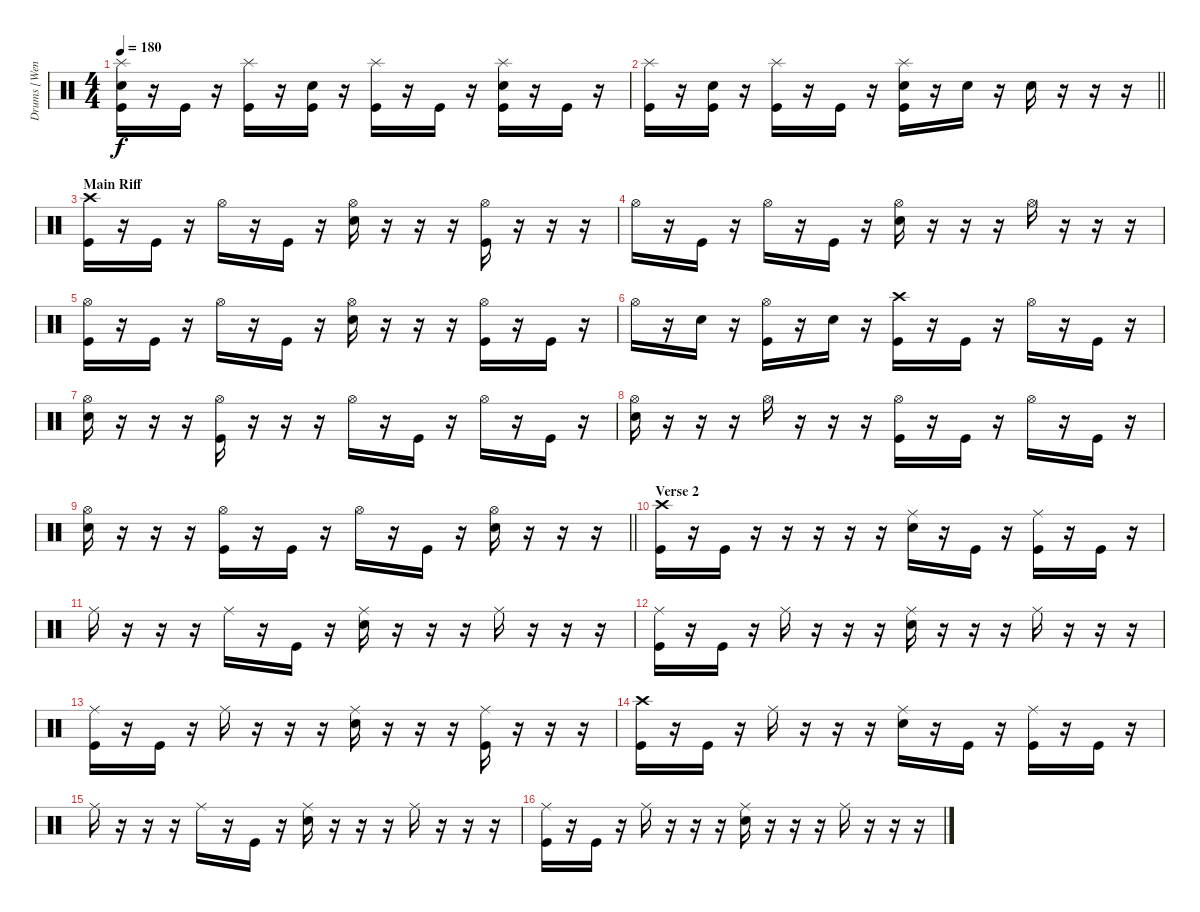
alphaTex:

\track ("Drums [Wengren]" "Drums [Wen") {instrument percussion}
\staff {score}
\articulation defaults
\ts (4 4)
\tempo 180
\clef neutral
\ks c
("Splash (hit)" "Electric Snare (hit)" "Kick (hit)").16{dy f} r.16 "Kick (hit)".16 r.16 ("Splash (hit)" "Kick (hit)").16 r.16 ("Electric Snare (hit)" "Kick (hit)").16 r.16 ("Splash (hit)" "Kick (hit)").16 r.16 "Kick (hit)".16 r.16 ("Splash (hit)" "Electric Snare (hit)" "Kick (hit)").16 r.16 "Kick (hit)".16 r.16 |
\barLineRight lightlight
("Splash (hit)" "Kick (hit)").16 r.16 ("Electric Snare (hit)" "Kick (hit)").16 r.16 ("Splash (hit)" "Kick (hit)").16 r.16 "Kick (hit)".16 r.16 ("Splash (hit)" "Electric Snare (hit)" "Kick (hit)").16 r.16 "Electric Snare (hit)".16 r.16 "Electric Snare (hit)".16 r.16 r.16 r.16 |
\section ("" "Main Riff")
("Crash high (hit)" "Kick (hit)").16 r.16 "Kick (hit)".16 r.16 "Hi-Hat (open)".16 r.16 "Kick (hit)".16 r.16 ("Hi-Hat (open)" "Electric Snare (hit)").16 r.16 r.16 r.16 ("Hi-Hat (open)" "Kick (hit)").16 r.16 r.16 r.16 |
"Hi-Hat (open)".16 r.16 "Kick (hit)".16 r.16 "Hi-Hat (open)".16 r.16 "Kick (hit)".16 r.16 ("Hi-Hat (open)" "Electric Snare (hit)").16 r.16 r.16 r.16 "Hi-Hat (open)".16 r.16 r.16 r.16 |
("Hi-Hat (open)" "Kick (hit)").16 r.16 "Kick (hit)".16 r.16 "Hi-Hat (open)".16 r.16 "Kick (hit)".16 r.16 ("Hi-Hat (open)" "Electric Snare (hit)").16 r.16 r.16 r.16 ("Hi-Hat (open)" "Kick (hit)").16 r.16 "Kick (hit)".16 r.16 |
"Hi-Hat (open)".16 r.16 "Electric Snare (hit)".16 r.16 ("Hi-Hat (open)" "Kick (hit)").16 r.16 "Electric Snare (hit)".16 r.16 ("Crash high (hit)" "Kick (hit)").16 r.16 "Kick (hit)".16 r.16 "Hi-Hat (open)".16 r.16 "Kick (hit)".16 r.16 |
("Hi-Hat (open)" "Electric Snare (hit)").16 r.16 r.16 r.16 ("Hi-Hat (open)" "Kick (hit)").16 r.16 r.16 r.16 "Hi-Hat (open)".16 r.16 "Kick (hit)".16 r.16 "Hi-Hat (open)".16 r.16 "Kick (hit)".16 r.16 |
("Hi-Hat (open)" "Electric Snare (hit)").16 r.16 r.16 r.16 "Hi-Hat (open)".16 r.16 r.16 r.16 ("Hi-Hat (open)" "Kick (hit)").16 r.16 "Kick (hit)".16 r.16 "Hi-Hat (open)".16 r.16 "Kick (hit)".16 r.16 |
\barLineRight lightlight
("Hi-Hat (open)" "Electric Snare (hit)").16 r.16 r.16 r.16 ("Hi-Hat (open)" "Kick (hit)").16 r.16 "Kick (hit)".16 r.16 "Hi-Hat (open)".16 r.16 "Kick (hit)".16 r.16 ("Hi-Hat (open)" "Electric Snare (hit)").16 r.16 r.16 r.16 |
\section ("" "Verse 2")
("Crash high (hit)" "Kick (hit)").16 r.16 "Kick (hit)".16 r.16 r.16 r.16 r.16 r.16 ("Ride (middle)" "Electric Snare (hit)").16 r.16 "Kick (hit)".16 r.16 ("Ride (middle)" "Kick (hit)").16 r.16 "Kick (hit)".16 r.16 |
"Ride (middle)".16 r.16 r.16 r.16 "Ride (middle)".16 r.16 "Kick (hit)".16 r.16 ("Ride (middle)" "Electric Snare (hit)").16 r.16 r.16 r.16 "Ride (middle)".16 r.16 r.16 r.16 |
("Ride (middle)" "Kick (hit)").16 r.16 "Kick (hit)".16 r.16 "Ride (middle)".16 r.16 r.16 r.16 ("Ride (middle)" "Electric Snare (hit)").16 r.16 r.16 r.16 "Ride (middle)".16 r.16 r.16 r.16 |
("Ride (middle)" "Kick (hit)").16 r.16 "Kick (hit)".16 r.16 "Ride (middle)".16 r.16 r.16 r.16 ("Ride (middle)" "Electric Snare (hit)").16 r.16 r.16 r.16 ("Ride (middle)" "Kick (hit)").16 r.16 r.16 r.16 |
("Crash high (hit)" "Kick (hit)").16 r.16 "Kick (hit)".16 r.16 "Ride (middle)".16 r.16 r.16 r.16 ("Ride (middle)" "Electric Snare (hit)").16 r.16 "Kick (hit)".16 r.16 ("Ride (middle)" "Kick (hit)").16 r.16 "Kick (hit)".16 r.16 |
"Ride (middle)".16 r.16 r.16 r.16 "Ride (middle)".16 r.16 "Kick (hit)".16 r.16 ("Ride (middle)" "Electric Snare (hit)").16 r.16 r.16 r.16 "Ride (middle)".16 r.16 r.16 r.16 |
("Ride (middle)" "Kick (hit)").16 r.16 "Kick (hit)".16 r.16 "Ride (middle)".16 r.16 r.16 r.16 ("Ride (middle)" "Electric Snare (hit)").16 r.16 r.16 r.16 "Ride (middle)".16 r.16 r.16 r.16
